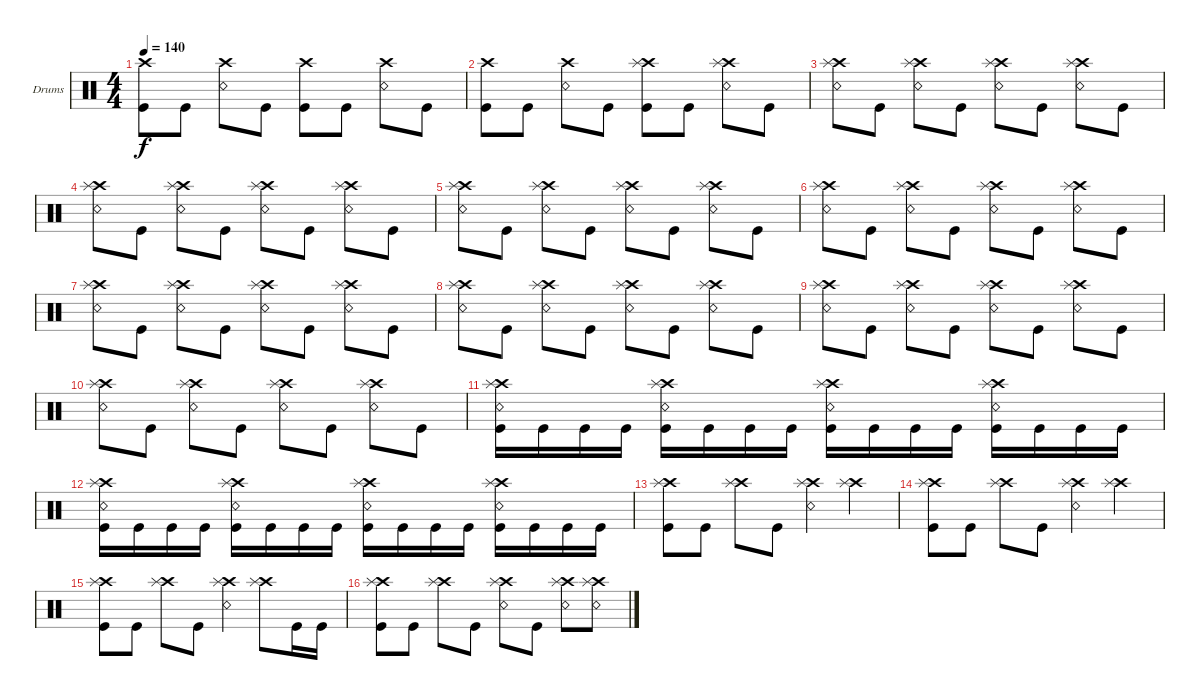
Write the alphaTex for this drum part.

\bracketExtendMode groupsimilarinstruments
\firstSystemTrackNameOrientation horizontal
\otherSystemsTrackNameOrientation horizontal
\track ("Da Kurlzz - Drums" "Drums") {instrument percussion}
\staff {score}
\articulation defaults
\ts (4 4)
\tempo 140
\clef neutral
\ks c
("Kick (hit)" "Crash high (hit)").8{dy f} "Kick (hit)".8 ("Snare (rim shot)" "Crash high (hit)").8 "Kick (hit)".8 ("Kick (hit)" "Crash high (hit)").8 "Kick (hit)".8 ("Snare (rim shot)" "Crash high (hit)").8 "Kick (hit)".8 |
("Kick (hit)" "Crash high (hit)").8 "Kick (hit)".8 ("Snare (rim shot)" "Crash high (hit)").8 "Kick (hit)".8 ("Kick (hit)" "Crash high (hit)" "Splash (hit)").8 "Kick (hit)".8 ("Snare (rim shot)" "Crash high (hit)" "Splash (hit)").8 "Kick (hit)".8 |
("Snare (rim shot)" "Crash high (hit)" "Splash (hit)").8 "Kick (hit)".8 ("Snare (rim shot)" "Crash high (hit)" "Splash (hit)").8 "Kick (hit)".8 ("Snare (rim shot)" "Crash high (hit)" "Splash (hit)").8 "Kick (hit)".8 ("Snare (rim shot)" "Crash high (hit)" "Splash (hit)").8 "Kick (hit)".8 |
("Snare (rim shot)" "Crash high (hit)" "Splash (hit)").8 "Kick (hit)".8 ("Snare (rim shot)" "Crash high (hit)" "Splash (hit)").8 "Kick (hit)".8 ("Snare (rim shot)" "Crash high (hit)" "Splash (hit)").8 "Kick (hit)".8 ("Snare (rim shot)" "Crash high (hit)" "Splash (hit)").8 "Kick (hit)".8 |
("Snare (rim shot)" "Crash high (hit)" "Splash (hit)").8 "Kick (hit)".8 ("Snare (rim shot)" "Crash high (hit)" "Splash (hit)").8 "Kick (hit)".8 ("Snare (rim shot)" "Crash high (hit)" "Splash (hit)").8 "Kick (hit)".8 ("Snare (rim shot)" "Crash high (hit)" "Splash (hit)").8 "Kick (hit)".8 |
("Snare (rim shot)" "Crash high (hit)" "Splash (hit)").8 "Kick (hit)".8 ("Snare (rim shot)" "Crash high (hit)" "Splash (hit)").8 "Kick (hit)".8 ("Snare (rim shot)" "Crash high (hit)" "Splash (hit)").8 "Kick (hit)".8 ("Snare (rim shot)" "Crash high (hit)" "Splash (hit)").8 "Kick (hit)".8 |
("Snare (rim shot)" "Crash high (hit)" "Splash (hit)").8 "Kick (hit)".8 ("Snare (rim shot)" "Crash high (hit)" "Splash (hit)").8 "Kick (hit)".8 ("Snare (rim shot)" "Crash high (hit)" "Splash (hit)").8 "Kick (hit)".8 ("Snare (rim shot)" "Crash high (hit)" "Splash (hit)").8 "Kick (hit)".8 |
("Snare (rim shot)" "Crash high (hit)" "Splash (hit)").8 "Kick (hit)".8 ("Snare (rim shot)" "Crash high (hit)" "Splash (hit)").8 "Kick (hit)".8 ("Snare (rim shot)" "Crash high (hit)" "Splash (hit)").8 "Kick (hit)".8 ("Snare (rim shot)" "Crash high (hit)" "Splash (hit)").8 "Kick (hit)".8 |
("Snare (rim shot)" "Crash high (hit)" "Splash (hit)").8 "Kick (hit)".8 ("Snare (rim shot)" "Crash high (hit)" "Splash (hit)").8 "Kick (hit)".8 ("Snare (rim shot)" "Crash high (hit)" "Splash (hit)").8 "Kick (hit)".8 ("Snare (rim shot)" "Crash high (hit)" "Splash (hit)").8 "Kick (hit)".8 |
("Snare (rim shot)" "Crash high (hit)" "Splash (hit)").8 "Kick (hit)".8 ("Snare (rim shot)" "Crash high (hit)" "Splash (hit)").8 "Kick (hit)".8 ("Snare (rim shot)" "Crash high (hit)" "Splash (hit)").8 "Kick (hit)".8 ("Snare (rim shot)" "Crash high (hit)" "Splash (hit)").8 "Kick (hit)".8 |
("Snare (rim shot)" "Crash high (hit)" "Splash (hit)" "Kick (hit)").16 "Kick (hit)".16 "Kick (hit)".16 "Kick (hit)".16 ("Snare (rim shot)" "Crash high (hit)" "Splash (hit)" "Kick (hit)").16 "Kick (hit)".16 "Kick (hit)".16 "Kick (hit)".16 ("Snare (rim shot)" "Crash high (hit)" "Splash (hit)" "Kick (hit)").16 "Kick (hit)".16 "Kick (hit)".16 "Kick (hit)".16 ("Snare (rim shot)" "Crash high (hit)" "Splash (hit)" "Kick (hit)").16 "Kick (hit)".16 "Kick (hit)".16 "Kick (hit)".16 |
("Snare (rim shot)" "Crash high (hit)" "Splash (hit)" "Kick (hit)").16 "Kick (hit)".16 "Kick (hit)".16 "Kick (hit)".16 ("Snare (rim shot)" "Crash high (hit)" "Splash (hit)" "Kick (hit)").16 "Kick (hit)".16 "Kick (hit)".16 "Kick (hit)".16 ("Snare (rim shot)" "Crash high (hit)" "Splash (hit)" "Kick (hit)").16 "Kick (hit)".16 "Kick (hit)".16 "Kick (hit)".16 ("Snare (rim shot)" "Crash high (hit)" "Splash (hit)" "Kick (hit)").16 "Kick (hit)".16 "Kick (hit)".16 "Kick (hit)".16 |
("Kick (hit)" "Crash high (hit)" "Splash (hit)").8 "Kick (hit)".8 ("Crash high (hit)" "Splash (hit)").8 "Kick (hit)".8 ("Snare (rim shot)" "Crash high (hit)" "Splash (hit)").4 ("Crash high (hit)" "Splash (hit)").4 |
("Kick (hit)" "Crash high (hit)" "Splash (hit)").8 "Kick (hit)".8 ("Crash high (hit)" "Splash (hit)").8 "Kick (hit)".8 ("Snare (rim shot)" "Crash high (hit)" "Splash (hit)").4 ("Crash high (hit)" "Splash (hit)").4 |
("Kick (hit)" "Crash high (hit)" "Splash (hit)").8 "Kick (hit)".8 ("Crash high (hit)" "Splash (hit)").8 "Kick (hit)".8 ("Snare (rim shot)" "Crash high (hit)" "Splash (hit)").4 ("Crash high (hit)" "Splash (hit)").8 "Kick (hit)".16 "Kick (hit)".16 |
("Kick (hit)" "Crash high (hit)" "Splash (hit)").8 "Kick (hit)".8 ("Crash high (hit)" "Splash (hit)").8 "Kick (hit)".8 ("Snare (rim shot)" "Crash high (hit)" "Splash (hit)").8 "Kick (hit)".8 ("Crash high (hit)" "Splash (hit)" "Snare (rim shot)").8 ("Snare (rim shot)" "Crash high (hit)" "Splash (hit)").8
